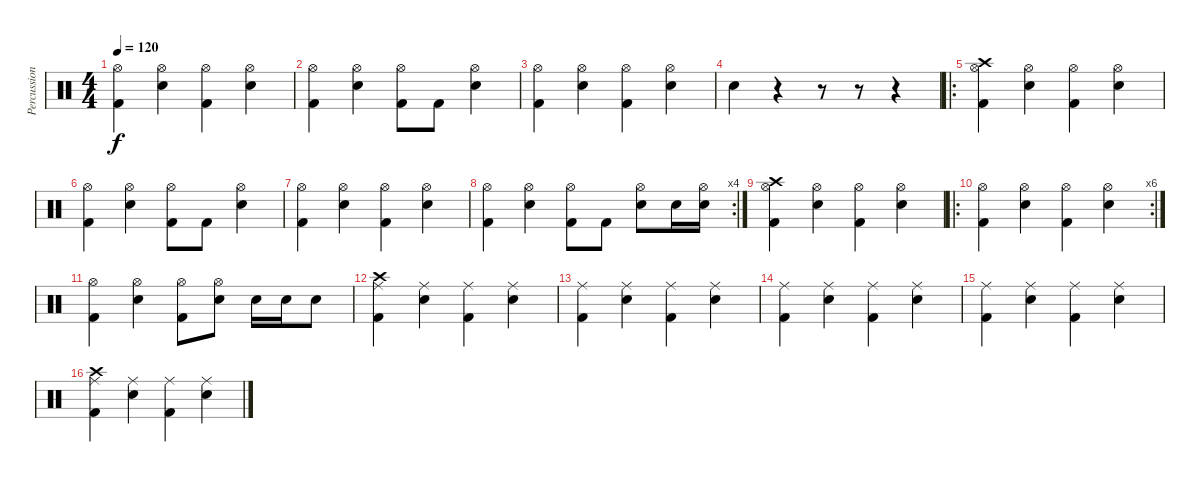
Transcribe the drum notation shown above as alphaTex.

\track ("Percussion" "Percussion") {instrument percussion}
\staff {score}
\articulation defaults
\ts (4 4)
\tempo 120
\clef neutral
\ks c
("Hi-Hat (open)" "Kick (hit) 2").4{dy f} ("Hi-Hat (open)" "Snare (hit) 2").4 ("Hi-Hat (open)" "Kick (hit) 2").4 ("Hi-Hat (open)" "Snare (hit) 2").4 |
("Hi-Hat (open)" "Kick (hit) 2").4 ("Hi-Hat (open)" "Snare (hit) 2").4 ("Hi-Hat (open)" "Kick (hit) 2").8 "Kick (hit) 2".8 ("Hi-Hat (open)" "Snare (hit) 2").4 |
("Hi-Hat (open)" "Kick (hit) 2").4 ("Hi-Hat (open)" "Snare (hit) 2").4 ("Hi-Hat (open)" "Kick (hit) 2").4 ("Hi-Hat (open)" "Snare (hit) 2").4 |
"Snare (hit) 2".4{volume 16} r.4 r.8 r.8 r.4 |
\ro
("Crash high (hit)" "Hi-Hat (open)" "Kick (hit) 2").4{volume 16} ("Hi-Hat (open)" "Snare (hit) 2").4 ("Hi-Hat (open)" "Kick (hit) 2").4 ("Hi-Hat (open)" "Snare (hit) 2").4 |
("Hi-Hat (open)" "Kick (hit) 2").4 ("Hi-Hat (open)" "Snare (hit) 2").4 ("Hi-Hat (open)" "Kick (hit) 2").8 "Kick (hit) 2".8 ("Hi-Hat (open)" "Snare (hit) 2").4 |
("Hi-Hat (open)" "Kick (hit) 2").4 ("Hi-Hat (open)" "Snare (hit) 2").4 ("Hi-Hat (open)" "Kick (hit) 2").4 ("Hi-Hat (open)" "Snare (hit) 2").4 |
\rc 4
("Hi-Hat (open)" "Kick (hit) 2").4 ("Hi-Hat (open)" "Snare (hit) 2").4 ("Hi-Hat (open)" "Kick (hit) 2").8 "Kick (hit) 2".8 ("Hi-Hat (open)" "Snare (hit) 2").8 "Snare (hit) 2".16 ("Hi-Hat (open)" "Snare (hit) 2").16 |
("Crash high (hit)" "Hi-Hat (open)" "Kick (hit) 2").4 ("Hi-Hat (open)" "Snare (hit) 2").4 ("Hi-Hat (open)" "Kick (hit) 2").4 ("Hi-Hat (open)" "Snare (hit) 2").4 |
\ro
\rc 6
("Hi-Hat (open)" "Kick (hit) 2").4 ("Hi-Hat (open)" "Snare (hit) 2").4 ("Hi-Hat (open)" "Kick (hit) 2").4 ("Hi-Hat (open)" "Snare (hit) 2").4 |
("Hi-Hat (open)" "Kick (hit) 2").4 ("Hi-Hat (open)" "Snare (hit) 2").4 ("Hi-Hat (open)" "Kick (hit) 2").8 ("Hi-Hat (open)" "Snare (hit) 2").8 "Snare (hit) 2".16 "Snare (hit) 2".16 "Snare (hit) 2".8 |
("Crash high (hit)" "Ride (middle)" "Kick (hit) 2").4 ("Ride (middle)" "Snare (hit) 2").4 ("Ride (middle)" "Kick (hit) 2").4 ("Ride (middle)" "Snare (hit) 2").4 |
("Ride (middle)" "Kick (hit) 2").4 ("Ride (middle)" "Snare (hit) 2").4 ("Ride (middle)" "Kick (hit) 2").4 ("Ride (middle)" "Snare (hit) 2").4 |
("Ride (middle)" "Kick (hit) 2").4 ("Ride (middle)" "Snare (hit) 2").4 ("Ride (middle)" "Kick (hit) 2").4 ("Ride (middle)" "Snare (hit) 2").4 |
("Ride (middle)" "Kick (hit) 2").4 ("Ride (middle)" "Snare (hit) 2").4 ("Ride (middle)" "Kick (hit) 2").4 ("Ride (middle)" "Snare (hit) 2").4 |
("Crash high (hit)" "Ride (middle)" "Kick (hit) 2").4 ("Ride (middle)" "Snare (hit) 2").4 ("Ride (middle)" "Kick (hit) 2").4 ("Ride (middle)" "Snare (hit) 2").4
